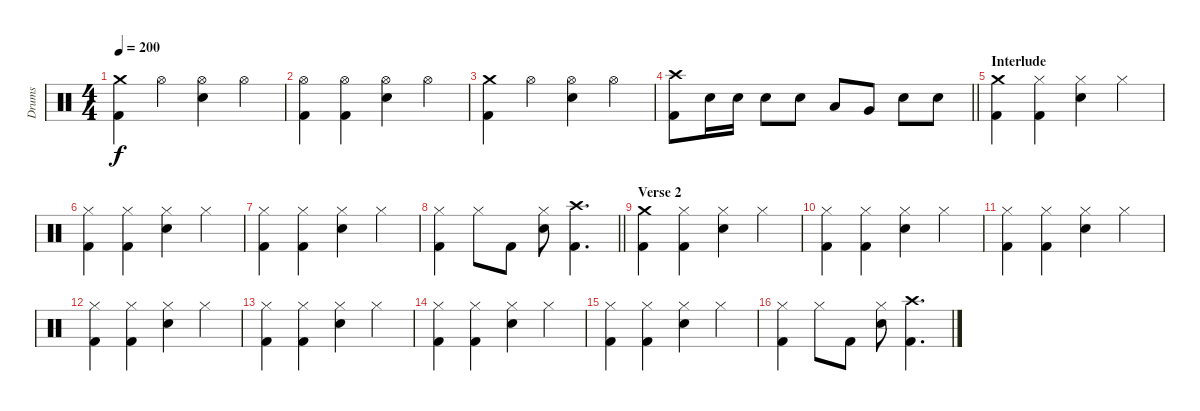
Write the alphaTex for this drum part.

\track ("Drums" "Drums") {instrument percussion}
\staff {score}
\articulation defaults
\ts (4 4)
\tempo 200
\clef neutral
\ks c
("Crash medium (hit)" "Kick (hit) 2").4{dy f} "Hi-Hat (open)".4 ("Hi-Hat (open)" "Electric Snare (hit)").4 "Hi-Hat (open)".4 |
("Hi-Hat (open)" "Kick (hit) 2").4 ("Hi-Hat (open)" "Kick (hit) 2").4 ("Hi-Hat (open)" "Electric Snare (hit)").4 "Hi-Hat (open)".4 |
("Crash medium (hit)" "Kick (hit) 2").4 "Hi-Hat (open)".4 ("Hi-Hat (open)" "Electric Snare (hit)").4 "Hi-Hat (open)".4 |
\barLineRight lightlight
("Crash high (hit)" "Kick (hit) 2").8 "Electric Snare (hit)".16 "Electric Snare (hit)".16 "Electric Snare (hit)".8 "Electric Snare (hit)".8 "Low Tom (hit)".8 "Very Low Tom (hit)".8 "Electric Snare (hit)".8 "Electric Snare (hit)".8 |
\section ("" "Interlude")
("Crash medium (hit)" "Kick (hit) 2").4 ("Hi-Hat (closed)" "Kick (hit) 2").4 ("Hi-Hat (closed)" "Electric Snare (hit)").4 "Hi-Hat (closed)".4 |
("Hi-Hat (closed)" "Kick (hit) 2").4 ("Hi-Hat (closed)" "Kick (hit) 2").4 ("Hi-Hat (closed)" "Electric Snare (hit)").4 "Hi-Hat (closed)".4 |
("Hi-Hat (closed)" "Kick (hit) 2").4 ("Hi-Hat (closed)" "Kick (hit) 2").4 ("Hi-Hat (closed)" "Electric Snare (hit)").4 "Hi-Hat (closed)".4 |
\barLineRight lightlight
("Hi-Hat (closed)" "Kick (hit) 2").4 "Hi-Hat (closed)".8 "Kick (hit) 2".8 ("Hi-Hat (closed)" "Electric Snare (hit)").8 ("Crash high (hit)" "Kick (hit) 2").4{d} |
\section ("" "Verse 2")
("Crash medium (hit)" "Kick (hit) 2").4 ("Hi-Hat (closed)" "Kick (hit) 2").4 ("Hi-Hat (closed)" "Electric Snare (hit)").4 "Hi-Hat (closed)".4 |
("Hi-Hat (closed)" "Kick (hit) 2").4 ("Hi-Hat (closed)" "Kick (hit) 2").4 ("Hi-Hat (closed)" "Electric Snare (hit)").4 "Hi-Hat (closed)".4 |
("Hi-Hat (closed)" "Kick (hit) 2").4 ("Hi-Hat (closed)" "Kick (hit) 2").4 ("Hi-Hat (closed)" "Electric Snare (hit)").4 "Hi-Hat (closed)".4 |
("Hi-Hat (closed)" "Kick (hit) 2").4 ("Hi-Hat (closed)" "Kick (hit) 2").4 ("Hi-Hat (closed)" "Electric Snare (hit)").4 "Hi-Hat (closed)".4 |
("Hi-Hat (closed)" "Kick (hit) 2").4 ("Hi-Hat (closed)" "Kick (hit) 2").4 ("Hi-Hat (closed)" "Electric Snare (hit)").4 "Hi-Hat (closed)".4 |
("Hi-Hat (closed)" "Kick (hit) 2").4 ("Hi-Hat (closed)" "Kick (hit) 2").4 ("Hi-Hat (closed)" "Electric Snare (hit)").4 "Hi-Hat (closed)".4 |
("Hi-Hat (closed)" "Kick (hit) 2").4 ("Hi-Hat (closed)" "Kick (hit) 2").4 ("Hi-Hat (closed)" "Electric Snare (hit)").4 "Hi-Hat (closed)".4 |
("Hi-Hat (closed)" "Kick (hit) 2").4 "Hi-Hat (closed)".8 "Kick (hit) 2".8 ("Hi-Hat (closed)" "Electric Snare (hit)").8 ("Crash high (hit)" "Kick (hit) 2").4{d}
